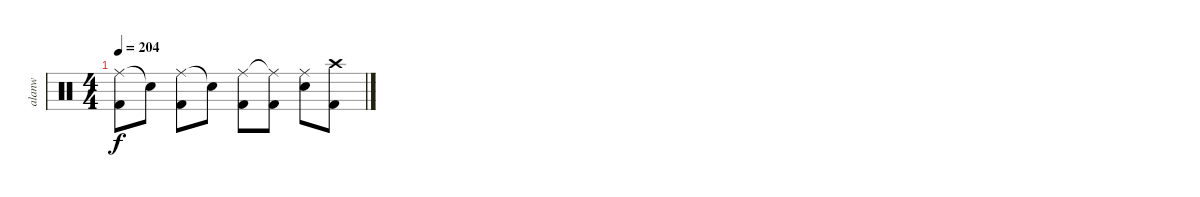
\track ("alanw" "alanw") {instrument percussion}
\staff {score}
\articulation defaults
\ts (4 4)
\tempo 204
\clef neutral
\ks c
("Ride (middle)" "Kick (hit) 2").8{dy f} "Snare (hit)"{t}.8 ("Ride (middle)" "Kick (hit) 2").8 "Snare (hit)"{t}.8 ("Ride (middle)" "Kick (hit) 2").8 ("Ride (middle)"{t} "Kick (hit) 2").8 ("Ride (middle)" "Electric Snare (hit)").8 ("Crash high (hit)" "Kick (hit) 2").8
